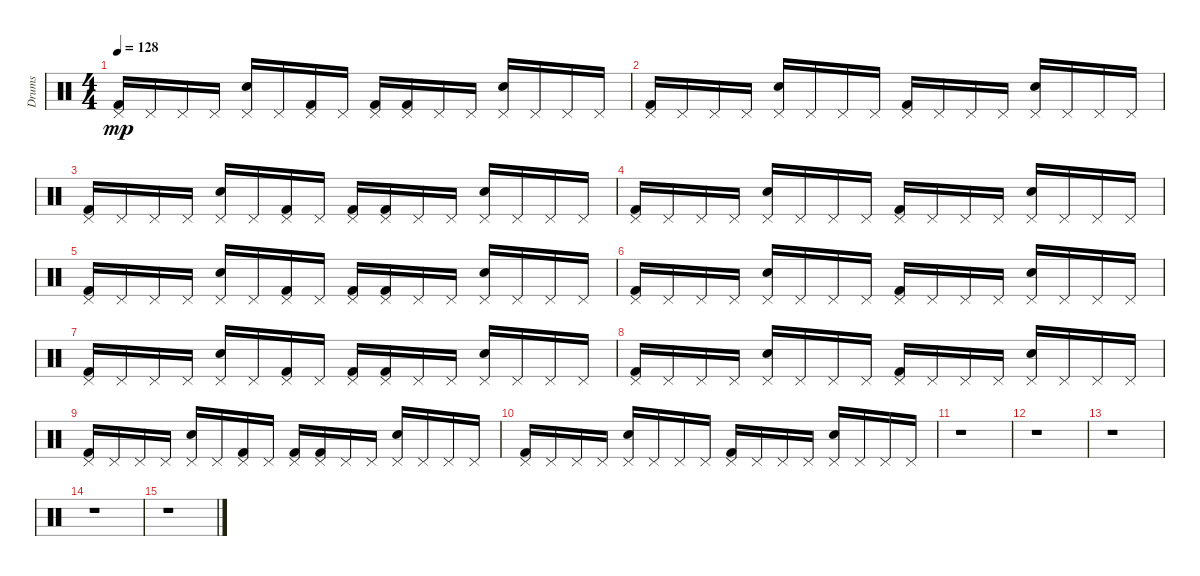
\track ("Drums" "Drums") {instrument percussion}
\staff {score}
\articulation defaults
\ts (4 4)
\tempo 128
\clef neutral
\ks c
("Pedal Hi-Hat (hit)" "Kick (hit) 2").16{dy mp} "Pedal Hi-Hat (hit)".16 "Pedal Hi-Hat (hit)".16 "Pedal Hi-Hat (hit)".16 ("Electric Snare (hit)" "Pedal Hi-Hat (hit)").16 "Pedal Hi-Hat (hit)".16 ("Pedal Hi-Hat (hit)" "Kick (hit) 2").16 "Pedal Hi-Hat (hit)".16 ("Kick (hit) 2" "Pedal Hi-Hat (hit)").16 ("Kick (hit) 2" "Pedal Hi-Hat (hit)").16 "Pedal Hi-Hat (hit)".16 "Pedal Hi-Hat (hit)".16 ("Pedal Hi-Hat (hit)" "Electric Snare (hit)").16 "Pedal Hi-Hat (hit)".16 "Pedal Hi-Hat (hit)".16 "Pedal Hi-Hat (hit)".16 |
("Kick (hit) 2" "Pedal Hi-Hat (hit)").16 "Pedal Hi-Hat (hit)".16 "Pedal Hi-Hat (hit)".16 "Pedal Hi-Hat (hit)".16 ("Electric Snare (hit)" "Pedal Hi-Hat (hit)").16 "Pedal Hi-Hat (hit)".16 "Pedal Hi-Hat (hit)".16 "Pedal Hi-Hat (hit)".16 ("Kick (hit) 2" "Pedal Hi-Hat (hit)").16 "Pedal Hi-Hat (hit)".16 "Pedal Hi-Hat (hit)".16 "Pedal Hi-Hat (hit)".16 ("Electric Snare (hit)" "Pedal Hi-Hat (hit)").16 "Pedal Hi-Hat (hit)".16 "Pedal Hi-Hat (hit)".16 "Pedal Hi-Hat (hit)".16 |
("Kick (hit) 2" "Pedal Hi-Hat (hit)").16 "Pedal Hi-Hat (hit)".16 "Pedal Hi-Hat (hit)".16 "Pedal Hi-Hat (hit)".16 ("Electric Snare (hit)" "Pedal Hi-Hat (hit)").16 "Pedal Hi-Hat (hit)".16 ("Kick (hit) 2" "Pedal Hi-Hat (hit)").16 "Pedal Hi-Hat (hit)".16 ("Pedal Hi-Hat (hit)" "Kick (hit) 2").16 ("Pedal Hi-Hat (hit)" "Kick (hit) 2").16 "Pedal Hi-Hat (hit)".16 "Pedal Hi-Hat (hit)".16 ("Electric Snare (hit)" "Pedal Hi-Hat (hit)").16 "Pedal Hi-Hat (hit)".16 "Pedal Hi-Hat (hit)".16 "Pedal Hi-Hat (hit)".16 |
("Kick (hit) 2" "Pedal Hi-Hat (hit)").16 "Pedal Hi-Hat (hit)".16 "Pedal Hi-Hat (hit)".16 "Pedal Hi-Hat (hit)".16 ("Pedal Hi-Hat (hit)" "Electric Snare (hit)").16 "Pedal Hi-Hat (hit)".16 "Pedal Hi-Hat (hit)".16 "Pedal Hi-Hat (hit)".16 ("Kick (hit) 2" "Pedal Hi-Hat (hit)").16 "Pedal Hi-Hat (hit)".16 "Pedal Hi-Hat (hit)".16 "Pedal Hi-Hat (hit)".16 ("Pedal Hi-Hat (hit)" "Electric Snare (hit)").16 "Pedal Hi-Hat (hit)".16 "Pedal Hi-Hat (hit)".16 "Pedal Hi-Hat (hit)".16 |
("Kick (hit) 2" "Pedal Hi-Hat (hit)").16 "Pedal Hi-Hat (hit)".16 "Pedal Hi-Hat (hit)".16 "Pedal Hi-Hat (hit)".16 ("Pedal Hi-Hat (hit)" "Electric Snare (hit)").16 "Pedal Hi-Hat (hit)".16 ("Kick (hit) 2" "Pedal Hi-Hat (hit)").16 "Pedal Hi-Hat (hit)".16 ("Pedal Hi-Hat (hit)" "Kick (hit) 2").16 ("Kick (hit) 2" "Pedal Hi-Hat (hit)").16 "Pedal Hi-Hat (hit)".16 "Pedal Hi-Hat (hit)".16 ("Electric Snare (hit)" "Pedal Hi-Hat (hit)").16 "Pedal Hi-Hat (hit)".16 "Pedal Hi-Hat (hit)".16 "Pedal Hi-Hat (hit)".16 |
("Kick (hit) 2" "Pedal Hi-Hat (hit)").16 "Pedal Hi-Hat (hit)".16 "Pedal Hi-Hat (hit)".16 "Pedal Hi-Hat (hit)".16 ("Pedal Hi-Hat (hit)" "Electric Snare (hit)").16 "Pedal Hi-Hat (hit)".16 "Pedal Hi-Hat (hit)".16 "Pedal Hi-Hat (hit)".16 ("Pedal Hi-Hat (hit)" "Kick (hit) 2").16 "Pedal Hi-Hat (hit)".16 "Pedal Hi-Hat (hit)".16 "Pedal Hi-Hat (hit)".16 ("Pedal Hi-Hat (hit)" "Electric Snare (hit)").16 "Pedal Hi-Hat (hit)".16 "Pedal Hi-Hat (hit)".16 "Pedal Hi-Hat (hit)".16 |
("Kick (hit) 2" "Pedal Hi-Hat (hit)").16 "Pedal Hi-Hat (hit)".16 "Pedal Hi-Hat (hit)".16 "Pedal Hi-Hat (hit)".16 ("Electric Snare (hit)" "Pedal Hi-Hat (hit)").16 "Pedal Hi-Hat (hit)".16 ("Kick (hit) 2" "Pedal Hi-Hat (hit)").16 "Pedal Hi-Hat (hit)".16 ("Kick (hit) 2" "Pedal Hi-Hat (hit)").16 ("Kick (hit) 2" "Pedal Hi-Hat (hit)").16 "Pedal Hi-Hat (hit)".16 "Pedal Hi-Hat (hit)".16 ("Pedal Hi-Hat (hit)" "Electric Snare (hit)").16 "Pedal Hi-Hat (hit)".16 "Pedal Hi-Hat (hit)".16 "Pedal Hi-Hat (hit)".16 |
("Kick (hit) 2" "Pedal Hi-Hat (hit)").16 "Pedal Hi-Hat (hit)".16 "Pedal Hi-Hat (hit)".16 "Pedal Hi-Hat (hit)".16 ("Electric Snare (hit)" "Pedal Hi-Hat (hit)").16 "Pedal Hi-Hat (hit)".16 "Pedal Hi-Hat (hit)".16 "Pedal Hi-Hat (hit)".16 ("Pedal Hi-Hat (hit)" "Kick (hit) 2").16 "Pedal Hi-Hat (hit)".16 "Pedal Hi-Hat (hit)".16 "Pedal Hi-Hat (hit)".16 ("Electric Snare (hit)" "Pedal Hi-Hat (hit)").16 "Pedal Hi-Hat (hit)".16 "Pedal Hi-Hat (hit)".16 "Pedal Hi-Hat (hit)".16 |
("Pedal Hi-Hat (hit)" "Kick (hit) 2").16 "Pedal Hi-Hat (hit)".16 "Pedal Hi-Hat (hit)".16 "Pedal Hi-Hat (hit)".16 ("Electric Snare (hit)" "Pedal Hi-Hat (hit)").16 "Pedal Hi-Hat (hit)".16 ("Kick (hit) 2" "Pedal Hi-Hat (hit)").16 "Pedal Hi-Hat (hit)".16 ("Pedal Hi-Hat (hit)" "Kick (hit) 2").16 ("Kick (hit) 2" "Pedal Hi-Hat (hit)").16 "Pedal Hi-Hat (hit)".16 "Pedal Hi-Hat (hit)".16 ("Pedal Hi-Hat (hit)" "Electric Snare (hit)").16 "Pedal Hi-Hat (hit)".16 "Pedal Hi-Hat (hit)".16 "Pedal Hi-Hat (hit)".16 |
("Pedal Hi-Hat (hit)" "Kick (hit) 2").16 "Pedal Hi-Hat (hit)".16 "Pedal Hi-Hat (hit)".16 "Pedal Hi-Hat (hit)".16 ("Electric Snare (hit)" "Pedal Hi-Hat (hit)").16 "Pedal Hi-Hat (hit)".16 "Pedal Hi-Hat (hit)".16 "Pedal Hi-Hat (hit)".16 ("Pedal Hi-Hat (hit)" "Kick (hit) 2").16 "Pedal Hi-Hat (hit)".16 "Pedal Hi-Hat (hit)".16 "Pedal Hi-Hat (hit)".16 ("Electric Snare (hit)" "Pedal Hi-Hat (hit)").16 "Pedal Hi-Hat (hit)".16 "Pedal Hi-Hat (hit)".16 "Pedal Hi-Hat (hit)".16 |
r.1 |
r.1 |
r.1 |
r.1 |
r.1
